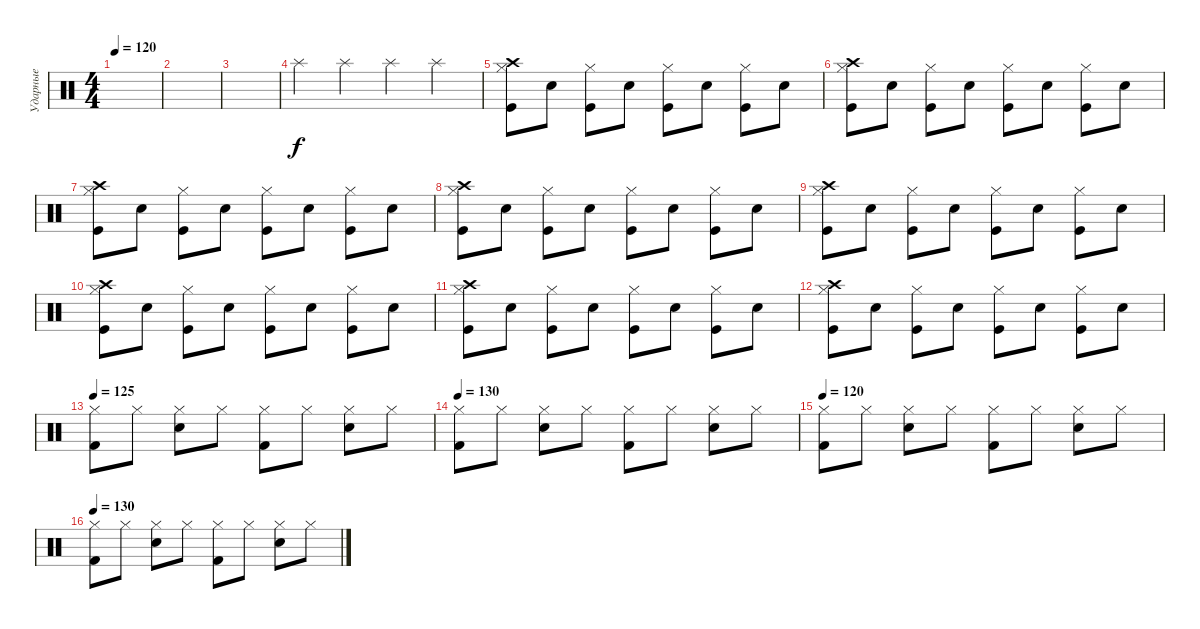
\track ("Ударные" "Ударные") {instrument percussion}
\staff {score}
\articulation defaults
\ts (4 4)
\tempo 120
\clef neutral
\ks c
|
|
|
"Splash (hit)".4 "Splash (hit)".4 "Splash (hit)".4 "Splash (hit)".4 |
("Crash high (hit)" "Hi-Hat (closed)" "Kick (hit)").8 "Electric Snare (hit)".8 ("Hi-Hat (closed)" "Kick (hit)").8 "Electric Snare (hit)".8 ("Hi-Hat (closed)" "Kick (hit)").8 "Electric Snare (hit)".8 ("Hi-Hat (closed)" "Kick (hit)").8 "Electric Snare (hit)".8 |
("Crash high (hit)" "Hi-Hat (closed)" "Kick (hit)").8 "Electric Snare (hit)".8 ("Hi-Hat (closed)" "Kick (hit)").8 "Electric Snare (hit)".8 ("Hi-Hat (closed)" "Kick (hit)").8 "Electric Snare (hit)".8 ("Hi-Hat (closed)" "Kick (hit)").8 "Electric Snare (hit)".8 |
("Crash high (hit)" "Hi-Hat (closed)" "Kick (hit)").8 "Electric Snare (hit)".8 ("Hi-Hat (closed)" "Kick (hit)").8 "Electric Snare (hit)".8 ("Hi-Hat (closed)" "Kick (hit)").8 "Electric Snare (hit)".8 ("Hi-Hat (closed)" "Kick (hit)").8 "Electric Snare (hit)".8 |
("Crash high (hit)" "Hi-Hat (closed)" "Kick (hit)").8 "Electric Snare (hit)".8 ("Hi-Hat (closed)" "Kick (hit)").8 "Electric Snare (hit)".8 ("Hi-Hat (closed)" "Kick (hit)").8 "Electric Snare (hit)".8 ("Hi-Hat (closed)" "Kick (hit)").8 "Electric Snare (hit)".8 |
("Crash high (hit)" "Hi-Hat (closed)" "Kick (hit)").8 "Electric Snare (hit)".8 ("Hi-Hat (closed)" "Kick (hit)").8 "Electric Snare (hit)".8 ("Hi-Hat (closed)" "Kick (hit)").8 "Electric Snare (hit)".8 ("Hi-Hat (closed)" "Kick (hit)").8 "Electric Snare (hit)".8 |
("Crash high (hit)" "Hi-Hat (closed)" "Kick (hit)").8 "Electric Snare (hit)".8 ("Hi-Hat (closed)" "Kick (hit)").8 "Electric Snare (hit)".8 ("Hi-Hat (closed)" "Kick (hit)").8 "Electric Snare (hit)".8 ("Hi-Hat (closed)" "Kick (hit)").8 "Electric Snare (hit)".8 |
("Crash high (hit)" "Hi-Hat (closed)" "Kick (hit)").8 "Electric Snare (hit)".8 ("Hi-Hat (closed)" "Kick (hit)").8 "Electric Snare (hit)".8 ("Hi-Hat (closed)" "Kick (hit)").8 "Electric Snare (hit)".8 ("Hi-Hat (closed)" "Kick (hit)").8 "Electric Snare (hit)".8 |
("Crash high (hit)" "Hi-Hat (closed)" "Kick (hit)").8 "Electric Snare (hit)".8 ("Hi-Hat (closed)" "Kick (hit)").8 "Electric Snare (hit)".8 ("Hi-Hat (closed)" "Kick (hit)").8 "Electric Snare (hit)".8 ("Hi-Hat (closed)" "Kick (hit)").8 "Electric Snare (hit)".8 |
\tempo 125
("Hi-Hat (closed)" "Kick (hit) 2").8 "Hi-Hat (closed)".8 ("Hi-Hat (closed)" "Electric Snare (hit)").8 "Hi-Hat (closed)".8 ("Hi-Hat (closed)" "Kick (hit) 2").8 "Hi-Hat (closed)".8 ("Hi-Hat (closed)" "Electric Snare (hit)").8 "Hi-Hat (closed)".8 |
\tempo 130
("Hi-Hat (closed)" "Kick (hit) 2").8 "Hi-Hat (closed)".8 ("Hi-Hat (closed)" "Electric Snare (hit)").8 "Hi-Hat (closed)".8 ("Hi-Hat (closed)" "Kick (hit) 2").8 "Hi-Hat (closed)".8 ("Hi-Hat (closed)" "Electric Snare (hit)").8 "Hi-Hat (closed)".8 |
\tempo 130
\tempo 120
("Hi-Hat (closed)" "Kick (hit) 2").8 "Hi-Hat (closed)".8 ("Hi-Hat (closed)" "Electric Snare (hit)").8 "Hi-Hat (closed)".8 ("Hi-Hat (closed)" "Kick (hit) 2").8 "Hi-Hat (closed)".8 ("Hi-Hat (closed)" "Electric Snare (hit)").8 "Hi-Hat (closed)".8 |
\tempo 130
("Hi-Hat (closed)" "Kick (hit) 2").8 "Hi-Hat (closed)".8 ("Hi-Hat (closed)" "Electric Snare (hit)").8 "Hi-Hat (closed)".8 ("Hi-Hat (closed)" "Kick (hit) 2").8 "Hi-Hat (closed)".8 ("Hi-Hat (closed)" "Electric Snare (hit)").8 "Hi-Hat (closed)".8
